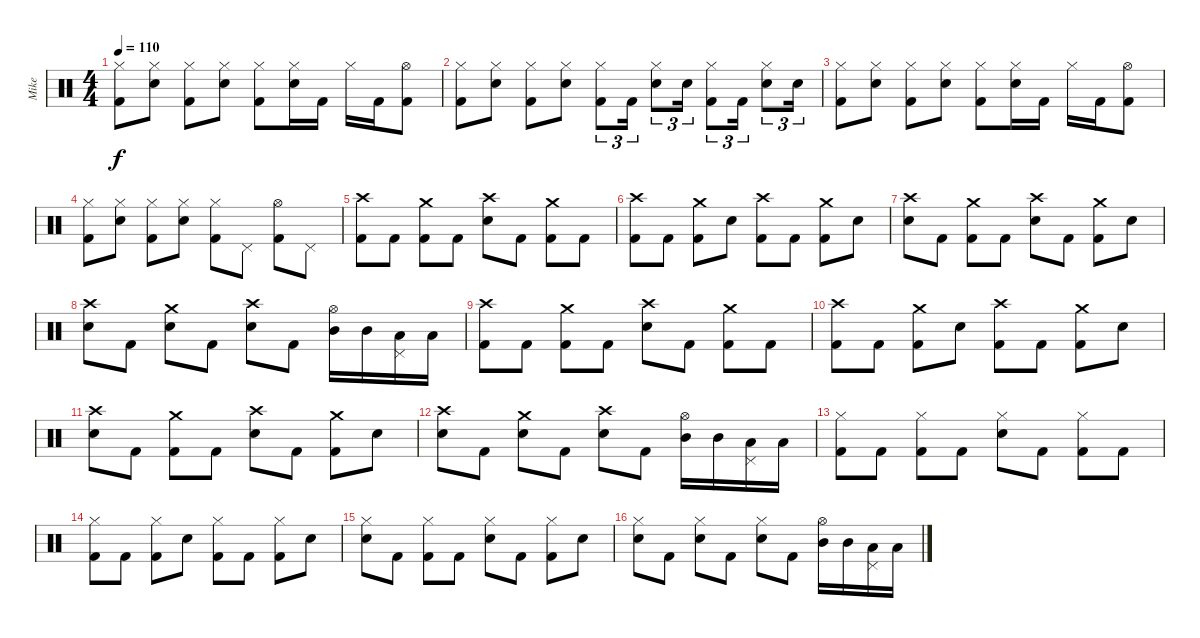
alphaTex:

\track ("Mike" "Mike") {instrument percussion}
\staff {score}
\articulation defaults
\ts (4 4)
\tempo 110
\clef neutral
\ks c
("Hi-Hat (closed)" "Kick (hit) 2").8{dy f} ("Hi-Hat (closed)" "Electric Snare (hit)").8 ("Hi-Hat (closed)" "Kick (hit) 2").8 ("Hi-Hat (closed)" "Electric Snare (hit)").8 ("Hi-Hat (closed)" "Kick (hit) 2").8 ("Hi-Hat (closed)" "Electric Snare (hit)").16 "Kick (hit) 2".16 "Hi-Hat (closed)".16 "Kick (hit) 2".16 ("Hi-Hat (open)" "Kick (hit) 2").8 |
("Hi-Hat (closed)" "Kick (hit) 2").8 ("Hi-Hat (closed)" "Electric Snare (hit)").8 ("Hi-Hat (closed)" "Kick (hit) 2").8 ("Hi-Hat (closed)" "Electric Snare (hit)").8 ("Hi-Hat (closed)" "Kick (hit) 2").8{tu (3 2)} "Kick (hit) 2".16{tu (3 2)} ("Hi-Hat (closed)" "Electric Snare (hit)").8{tu (3 2)} "Electric Snare (hit)".16{tu (3 2)} ("Hi-Hat (closed)" "Kick (hit) 2").8{tu (3 2)} "Kick (hit) 2".16{tu (3 2)} ("Hi-Hat (closed)" "Electric Snare (hit)").8{tu (3 2)} "Electric Snare (hit)".16{tu (3 2)} |
("Hi-Hat (closed)" "Kick (hit) 2").8 ("Hi-Hat (closed)" "Electric Snare (hit)").8 ("Hi-Hat (closed)" "Kick (hit) 2").8 ("Hi-Hat (closed)" "Electric Snare (hit)").8 ("Hi-Hat (closed)" "Kick (hit) 2").8 ("Hi-Hat (closed)" "Electric Snare (hit)").16 "Kick (hit) 2".16 "Hi-Hat (closed)".16 "Kick (hit) 2".16 ("Hi-Hat (open)" "Kick (hit) 2").8 |
("Hi-Hat (closed)" "Kick (hit) 2").8 ("Hi-Hat (closed)" "Electric Snare (hit)").8 ("Hi-Hat (closed)" "Kick (hit) 2").8 ("Hi-Hat (closed)" "Electric Snare (hit)").8 ("Hi-Hat (closed)" "Kick (hit) 2").8 "Pedal Hi-Hat (hit)".8 ("Hi-Hat (open)" "Kick (hit) 2").8 "Pedal Hi-Hat (hit)".8 |
("Crash high (hit)" "Kick (hit) 2").8 "Kick (hit) 2".8 ("Crash medium (hit)" "Kick (hit) 2").8 "Kick (hit) 2".8 ("Crash high (hit)" "Electric Snare (hit)").8 "Kick (hit) 2".8 ("Crash medium (hit)" "Kick (hit) 2").8 "Kick (hit) 2".8 |
("Crash high (hit)" "Kick (hit) 2").8 "Kick (hit) 2".8 ("Crash medium (hit)" "Kick (hit) 2").8 "Electric Snare (hit)".8 ("Crash high (hit)" "Kick (hit) 2").8 "Kick (hit) 2".8 ("Crash medium (hit)" "Kick (hit) 2").8 "Electric Snare (hit)".8 |
("Crash high (hit)" "Electric Snare (hit)").8 "Kick (hit) 2".8 ("Crash medium (hit)" "Kick (hit) 2").8 "Kick (hit) 2".8 ("Crash high (hit)" "Electric Snare (hit)").8 "Kick (hit) 2".8 ("Crash medium (hit)" "Kick (hit) 2").8 "Electric Snare (hit)".8 |
("Crash high (hit)" "Electric Snare (hit)").8 "Kick (hit) 2".8 ("Crash medium (hit)" "Electric Snare (hit)").8 "Kick (hit) 2".8 ("Crash high (hit)" "Electric Snare (hit)").8 "Kick (hit) 2".8 ("Hi-Hat (open)" "Mid Tom (hit)").16 "Mid Tom (hit)".16 ("Pedal Hi-Hat (hit)" "Low Tom (hit)").16 "Low Tom (hit)".16 |
("Crash high (hit)" "Kick (hit) 2").8 "Kick (hit) 2".8 ("Crash medium (hit)" "Kick (hit) 2").8 "Kick (hit) 2".8 ("Crash high (hit)" "Electric Snare (hit)").8 "Kick (hit) 2".8 ("Crash medium (hit)" "Kick (hit) 2").8 "Kick (hit) 2".8 |
("Crash high (hit)" "Kick (hit) 2").8 "Kick (hit) 2".8 ("Crash medium (hit)" "Kick (hit) 2").8 "Electric Snare (hit)".8 ("Crash high (hit)" "Kick (hit) 2").8 "Kick (hit) 2".8 ("Crash medium (hit)" "Kick (hit) 2").8 "Electric Snare (hit)".8 |
("Crash high (hit)" "Electric Snare (hit)").8 "Kick (hit) 2".8 ("Crash medium (hit)" "Kick (hit) 2").8 "Kick (hit) 2".8 ("Crash high (hit)" "Electric Snare (hit)").8 "Kick (hit) 2".8 ("Crash medium (hit)" "Kick (hit) 2").8 "Electric Snare (hit)".8 |
("Crash high (hit)" "Electric Snare (hit)").8 "Kick (hit) 2".8 ("Crash medium (hit)" "Electric Snare (hit)").8 "Kick (hit) 2".8 ("Crash high (hit)" "Electric Snare (hit)").8 "Kick (hit) 2".8 ("Hi-Hat (open)" "Mid Tom (hit)").16 "Mid Tom (hit)".16 ("Pedal Hi-Hat (hit)" "Low Tom (hit)").16 "Low Tom (hit)".16 |
("Hi-Hat (closed)" "Kick (hit) 2").8 "Kick (hit) 2".8 ("Hi-Hat (closed)" "Kick (hit) 2").8 "Kick (hit) 2".8 ("Hi-Hat (closed)" "Electric Snare (hit)").8 "Kick (hit) 2".8 ("Hi-Hat (closed)" "Kick (hit) 2").8 "Kick (hit) 2".8 |
("Hi-Hat (closed)" "Kick (hit) 2").8 "Kick (hit) 2".8 ("Hi-Hat (closed)" "Kick (hit) 2").8 "Electric Snare (hit)".8 ("Hi-Hat (closed)" "Kick (hit) 2").8 "Kick (hit) 2".8 ("Hi-Hat (closed)" "Kick (hit) 2").8 "Electric Snare (hit)".8 |
("Hi-Hat (closed)" "Electric Snare (hit)").8 "Kick (hit) 2".8 ("Hi-Hat (closed)" "Kick (hit) 2").8 "Kick (hit) 2".8 ("Hi-Hat (closed)" "Electric Snare (hit)").8 "Kick (hit) 2".8 ("Hi-Hat (closed)" "Kick (hit) 2").8 "Electric Snare (hit)".8 |
("Hi-Hat (closed)" "Electric Snare (hit)").8 "Kick (hit) 2".8 ("Hi-Hat (closed)" "Electric Snare (hit)").8 "Kick (hit) 2".8 ("Hi-Hat (closed)" "Electric Snare (hit)").8 "Kick (hit) 2".8 ("Hi-Hat (open)" "Mid Tom (hit)").16 "Mid Tom (hit)".16 ("Pedal Hi-Hat (hit)" "Low Tom (hit)").16 "Low Tom (hit)".16
